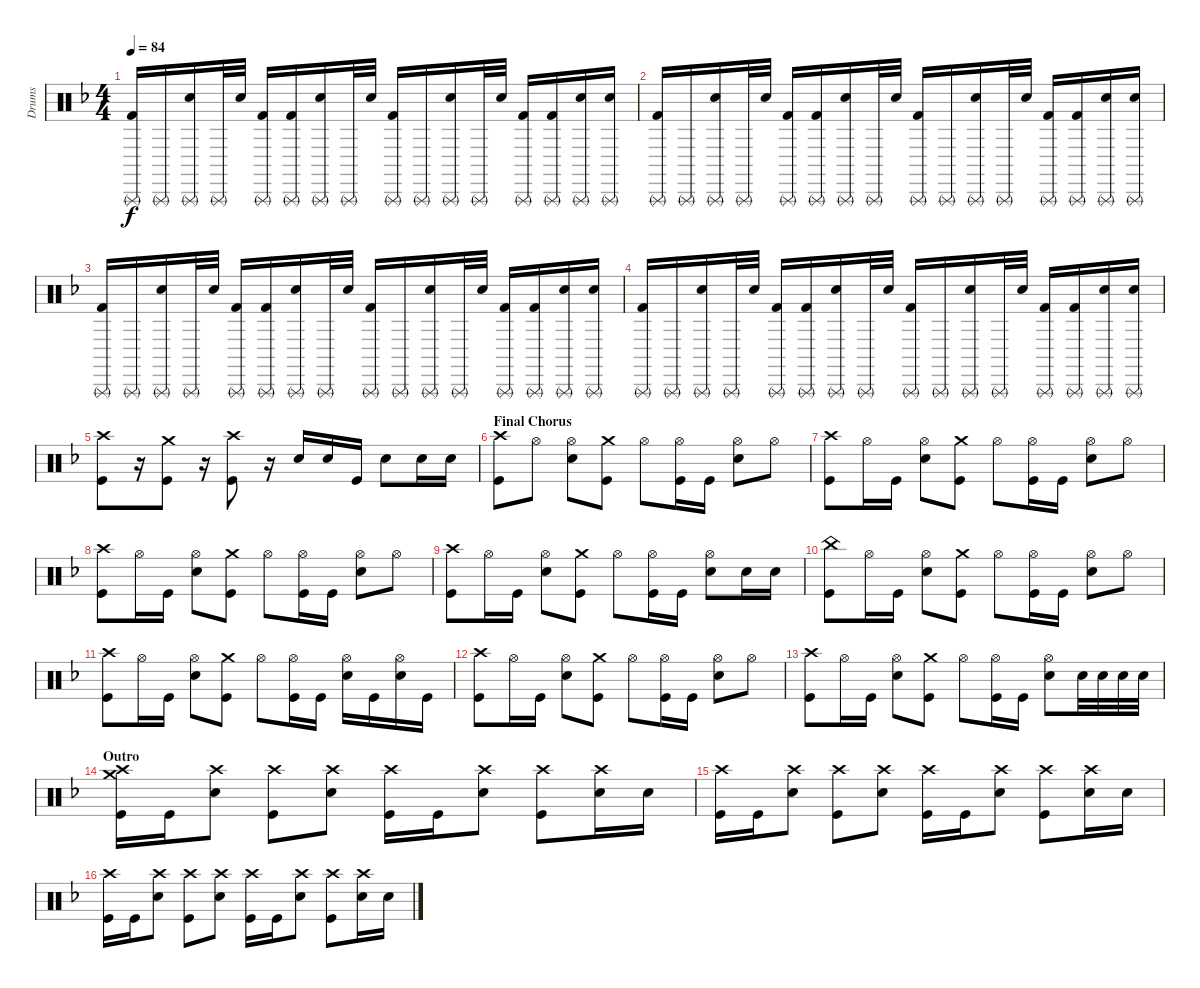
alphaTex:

\track ("Drums" "Drums") {instrument percussion}
\staff {score}
\articulation defaults
\ts (4 4)
\tempo 84
\clef neutral
\ks dminor
("Triangle (rnute)" "Kick (hit) 2").16{dy f} "Triangle (rnute)".16 ("Triangle (rnute)" "Electric Snare (hit)").16 "Triangle (rnute)".32 "Electric Snare (hit)".32 ("Triangle (rnute)" "Kick (hit) 2").16 ("Triangle (rnute)" "Kick (hit) 2").16 ("Triangle (rnute)" "Electric Snare (hit)").16 "Triangle (rnute)".32 "Electric Snare (hit)".32 ("Triangle (rnute)" "Kick (hit) 2").16 "Triangle (rnute)".16 ("Triangle (rnute)" "Electric Snare (hit)").16 "Triangle (rnute)".32 "Electric Snare (hit)".32 ("Triangle (rnute)" "Kick (hit) 2").16 ("Triangle (rnute)" "Kick (hit) 2").16 ("Triangle (rnute)" "Electric Snare (hit)").16 ("Triangle (rnute)" "Electric Snare (hit)").16 |
("Triangle (rnute)" "Kick (hit) 2").16 "Triangle (rnute)".16 ("Triangle (rnute)" "Electric Snare (hit)").16 "Triangle (rnute)".32 "Electric Snare (hit)".32 ("Triangle (rnute)" "Kick (hit) 2").16 ("Triangle (rnute)" "Kick (hit) 2").16 ("Triangle (rnute)" "Electric Snare (hit)").16 "Triangle (rnute)".32 "Electric Snare (hit)".32 ("Triangle (rnute)" "Kick (hit) 2").16 "Triangle (rnute)".16 ("Triangle (rnute)" "Electric Snare (hit)").16 "Triangle (rnute)".32 "Electric Snare (hit)".32 ("Triangle (rnute)" "Kick (hit) 2").16 ("Triangle (rnute)" "Kick (hit) 2").16 ("Triangle (rnute)" "Electric Snare (hit)").16 ("Triangle (rnute)" "Electric Snare (hit)").16 |
("Triangle (rnute)" "Kick (hit) 2").16 "Triangle (rnute)".16 ("Triangle (rnute)" "Electric Snare (hit)").16 "Triangle (rnute)".32 "Electric Snare (hit)".32 ("Triangle (rnute)" "Kick (hit) 2").16 ("Triangle (rnute)" "Kick (hit) 2").16 ("Triangle (rnute)" "Electric Snare (hit)").16 "Triangle (rnute)".32 "Electric Snare (hit)".32 ("Triangle (rnute)" "Kick (hit) 2").16 "Triangle (rnute)".16 ("Triangle (rnute)" "Electric Snare (hit)").16 "Triangle (rnute)".32 "Electric Snare (hit)".32 ("Triangle (rnute)" "Kick (hit) 2").16 ("Triangle (rnute)" "Kick (hit) 2").16 ("Triangle (rnute)" "Electric Snare (hit)").16 ("Triangle (rnute)" "Electric Snare (hit)").16 |
("Triangle (rnute)" "Kick (hit) 2").16 "Triangle (rnute)".16 ("Triangle (rnute)" "Electric Snare (hit)").16 "Triangle (rnute)".32 "Electric Snare (hit)".32 ("Triangle (rnute)" "Kick (hit) 2").16 ("Triangle (rnute)" "Kick (hit) 2").16 ("Triangle (rnute)" "Electric Snare (hit)").16 "Triangle (rnute)".32 "Electric Snare (hit)".32 ("Triangle (rnute)" "Kick (hit) 2").16 "Triangle (rnute)".16 ("Triangle (rnute)" "Electric Snare (hit)").16 "Triangle (rnute)".32 "Electric Snare (hit)".32 ("Triangle (rnute)" "Kick (hit) 2").16 ("Triangle (rnute)" "Kick (hit) 2").16 ("Triangle (rnute)" "Electric Snare (hit)").16 ("Triangle (rnute)" "Electric Snare (hit)").16 |
("Crash high (hit)" "Kick (hit)").8 r.16 ("Crash medium (hit)" "Kick (hit)").8 r.16 ("Crash high (hit)" "Kick (hit)").8 r.16 "Snare (hit) 2".16 "Snare (hit) 2".16 "Kick (hit)".16 "Snare (hit) 2".8 "Snare (hit) 2".16 "Snare (hit) 2".16 |
\section ("" "Final Chorus")
("Crash high (hit)" "Kick (hit)").8 "Hi-Hat (open)".8 ("Hi-Hat (open)" "Snare (hit) 2").8 ("Crash medium (hit)" "Kick (hit)").8 "Hi-Hat (open)".8 ("Hi-Hat (open)" "Kick (hit)").16 "Kick (hit)".16 ("Hi-Hat (open)" "Snare (hit) 2").8 "Hi-Hat (open)".8 |
("Crash high (hit)" "Kick (hit)").8 "Hi-Hat (open)".16 "Kick (hit)".16 ("Hi-Hat (open)" "Snare (hit) 2").8 ("Crash medium (hit)" "Kick (hit)").8 "Hi-Hat (open)".8 ("Hi-Hat (open)" "Kick (hit)").16 "Kick (hit)".16 ("Hi-Hat (open)" "Snare (hit) 2").8 "Hi-Hat (open)".8 |
("Crash high (hit)" "Kick (hit)").8 "Hi-Hat (open)".16 "Kick (hit)".16 ("Hi-Hat (open)" "Snare (hit) 2").8 ("Crash medium (hit)" "Kick (hit)").8 "Hi-Hat (open)".8 ("Hi-Hat (open)" "Kick (hit)").16 "Kick (hit)".16 ("Hi-Hat (open)" "Snare (hit) 2").8 "Hi-Hat (open)".8 |
("Crash high (hit)" "Kick (hit)").8 "Hi-Hat (open)".16 "Kick (hit)".16 ("Hi-Hat (open)" "Snare (hit) 2").8 ("Crash medium (hit)" "Kick (hit)").8 "Hi-Hat (open)".8 ("Hi-Hat (open)" "Kick (hit)").16 "Kick (hit)".16 ("Hi-Hat (open)" "Snare (hit) 2").8 "Snare (hit) 2".16 "Snare (hit) 2".16 |
("China (hit)" "Kick (hit)").8 "Hi-Hat (open)".16 "Kick (hit)".16 ("Hi-Hat (open)" "Snare (hit) 2").8 ("Crash medium (hit)" "Kick (hit)").8 "Hi-Hat (open)".8 ("Hi-Hat (open)" "Kick (hit)").16 "Kick (hit)".16 ("Hi-Hat (open)" "Snare (hit) 2").8 "Hi-Hat (open)".8 |
("Crash high (hit)" "Kick (hit)").8 "Hi-Hat (open)".16 "Kick (hit)".16 ("Hi-Hat (open)" "Snare (hit) 2").8 ("Crash medium (hit)" "Kick (hit)").8 "Hi-Hat (open)".8 ("Hi-Hat (open)" "Kick (hit)").16 "Kick (hit)".16 ("Hi-Hat (open)" "Snare (hit) 2").16 "Kick (hit)".16 ("Hi-Hat (open)" "Snare (hit) 2").16 "Kick (hit)".16 |
("Crash high (hit)" "Kick (hit)").8 "Hi-Hat (open)".16 "Kick (hit)".16 ("Hi-Hat (open)" "Snare (hit) 2").8 ("Crash medium (hit)" "Kick (hit)").8 "Hi-Hat (open)".8 ("Hi-Hat (open)" "Kick (hit)").16 "Kick (hit)".16 ("Hi-Hat (open)" "Snare (hit) 2").8 "Hi-Hat (open)".8 |
("Crash high (hit)" "Kick (hit)").8 "Hi-Hat (open)".16 "Kick (hit)".16 ("Hi-Hat (open)" "Snare (hit) 2").8 ("Crash medium (hit)" "Kick (hit)").8 "Hi-Hat (open)".8 ("Hi-Hat (open)" "Kick (hit)").16 "Kick (hit)".16 ("Hi-Hat (open)" "Snare (hit) 2").8 "Snare (hit) 2".32 "Snare (hit) 2".32 "Snare (hit) 2".32 "Snare (hit) 2".32 |
\section ("" "Outro")
("Crash medium (hit)" "Crash high (hit)" "Kick (hit)").16 "Kick (hit)".16 ("Crash high (hit)" "Snare (hit) 2").8 ("Crash high (hit)" "Kick (hit)").8 ("Crash high (hit)" "Snare (hit) 2").8 ("Crash high (hit)" "Kick (hit)").16 "Kick (hit)".16 ("Crash high (hit)" "Snare (hit) 2").8 ("Crash high (hit)" "Kick (hit)").8 ("Crash high (hit)" "Snare (hit) 2").16 "Snare (hit) 2".16 |
("Crash high (hit)" "Kick (hit)").16 "Kick (hit)".16 ("Crash high (hit)" "Snare (hit) 2").8 ("Crash high (hit)" "Kick (hit)").8 ("Crash high (hit)" "Snare (hit) 2").8 ("Crash high (hit)" "Kick (hit)").16 "Kick (hit)".16 ("Crash high (hit)" "Snare (hit) 2").8 ("Crash high (hit)" "Kick (hit)").8 ("Crash high (hit)" "Snare (hit) 2").16 "Snare (hit) 2".16 |
("Crash high (hit)" "Kick (hit)").16 "Kick (hit)".16 ("Crash high (hit)" "Snare (hit) 2").8 ("Crash high (hit)" "Kick (hit)").8 ("Crash high (hit)" "Snare (hit) 2").8 ("Crash high (hit)" "Kick (hit)").16 "Kick (hit)".16 ("Crash high (hit)" "Snare (hit) 2").8 ("Crash high (hit)" "Kick (hit)").8 ("Crash high (hit)" "Snare (hit) 2").16 "Snare (hit) 2".16
